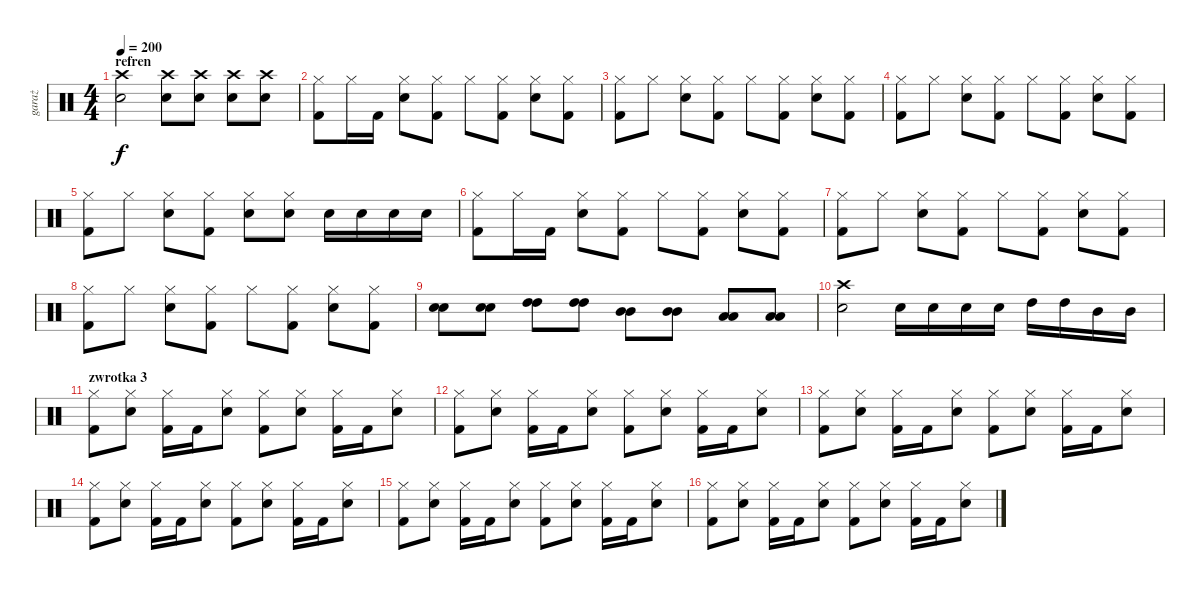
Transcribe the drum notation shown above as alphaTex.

\track ("garaż" "garaż") {instrument percussion}
\staff {score}
\articulation defaults
\ts (4 4)
\section ("" "refren")
\tempo 200
\clef neutral
\ks c
("Crash high (hit)" "Snare (hit) 2").2{dy f} ("Crash high (hit)" "Snare (hit) 2").8 ("Crash high (hit)" "Snare (hit) 2").8 ("Crash high (hit)" "Snare (hit) 2").8 ("Crash high (hit)" "Snare (hit) 2").8 |
("Hi-Hat (closed)" "Kick (hit) 2").8 "Hi-Hat (closed)".16 "Kick (hit) 2".16 ("Hi-Hat (closed)" "Snare (hit) 2").8 ("Hi-Hat (closed)" "Kick (hit) 2").8 "Hi-Hat (closed)".8 ("Hi-Hat (closed)" "Kick (hit) 2").8 ("Hi-Hat (closed)" "Snare (hit) 2").8 ("Hi-Hat (closed)" "Kick (hit) 2").8 |
("Hi-Hat (closed)" "Kick (hit) 2").8 "Hi-Hat (closed)".8 ("Hi-Hat (closed)" "Snare (hit) 2").8 ("Hi-Hat (closed)" "Kick (hit) 2").8 "Hi-Hat (closed)".8 ("Hi-Hat (closed)" "Kick (hit) 2").8 ("Hi-Hat (closed)" "Snare (hit) 2").8 ("Hi-Hat (closed)" "Kick (hit) 2").8 |
("Hi-Hat (closed)" "Kick (hit) 2").8 "Hi-Hat (closed)".8 ("Hi-Hat (closed)" "Snare (hit) 2").8 ("Hi-Hat (closed)" "Kick (hit) 2").8 "Hi-Hat (closed)".8 ("Hi-Hat (closed)" "Kick (hit) 2").8 ("Hi-Hat (closed)" "Snare (hit) 2").8 ("Hi-Hat (closed)" "Kick (hit) 2").8 |
("Hi-Hat (closed)" "Kick (hit) 2").8 "Hi-Hat (closed)".8 ("Hi-Hat (closed)" "Snare (hit) 2").8 ("Hi-Hat (closed)" "Kick (hit) 2").8 ("Hi-Hat (closed)" "Snare (hit) 2").8 ("Hi-Hat (closed)" "Snare (hit) 2").8 "Snare (hit) 2".16 "Snare (hit) 2".16 "Snare (hit) 2".16 "Snare (hit) 2".16 |
("Hi-Hat (closed)" "Kick (hit) 2").8 "Hi-Hat (closed)".16 "Kick (hit) 2".16 ("Hi-Hat (closed)" "Snare (hit) 2").8 ("Hi-Hat (closed)" "Kick (hit) 2").8 "Hi-Hat (closed)".8 ("Hi-Hat (closed)" "Kick (hit) 2").8 ("Hi-Hat (closed)" "Snare (hit) 2").8 ("Hi-Hat (closed)" "Kick (hit) 2").8 |
("Hi-Hat (closed)" "Kick (hit) 2").8 "Hi-Hat (closed)".8 ("Hi-Hat (closed)" "Snare (hit) 2").8 ("Hi-Hat (closed)" "Kick (hit) 2").8 "Hi-Hat (closed)".8 ("Hi-Hat (closed)" "Kick (hit) 2").8 ("Hi-Hat (closed)" "Snare (hit) 2").8 ("Hi-Hat (closed)" "Kick (hit) 2").8 |
("Hi-Hat (closed)" "Kick (hit) 2").8 "Hi-Hat (closed)".8 ("Hi-Hat (closed)" "Snare (hit) 2").8 ("Hi-Hat (closed)" "Kick (hit) 2").8 "Hi-Hat (closed)".8 ("Hi-Hat (closed)" "Kick (hit) 2").8 ("Hi-Hat (closed)" "Snare (hit) 2").8 ("Hi-Hat (closed)" "Kick (hit) 2").8 |
("Snare (hit) 2" "Snare (hit) 2").8 ("Snare (hit) 2" "Snare (hit) 2").8 ("High Tom (hit)" "High Tom (hit)").8 ("High Tom (hit)" "High Tom (hit)").8 ("Mid Tom (hit)" "Mid Tom (hit)").8 ("Mid Tom (hit)" "Mid Tom (hit)").8 ("Low Tom (hit)" "Low Tom (hit)").8 ("Low Tom (hit)" "Low Tom (hit)").8 |
("Crash high (hit)" "Snare (hit) 2").2 "Snare (hit) 2".16 "Snare (hit) 2".16 "Snare (hit) 2".16 "Snare (hit) 2".16 "High Tom (hit)".16 "High Tom (hit)".16 "Mid Tom (hit)".16 "Mid Tom (hit)".16 |
\section ("" "zwrotka 3")
("Hi-Hat (closed)" "Kick (hit) 2").8 ("Hi-Hat (closed)" "Snare (hit) 2").8 ("Hi-Hat (closed)" "Kick (hit) 2").16 "Kick (hit) 2".16 ("Hi-Hat (closed)" "Snare (hit) 2").8 ("Hi-Hat (closed)" "Kick (hit) 2").8 ("Hi-Hat (closed)" "Snare (hit) 2").8 ("Hi-Hat (closed)" "Kick (hit) 2").16 "Kick (hit) 2".16 ("Hi-Hat (closed)" "Snare (hit) 2").8 |
("Hi-Hat (closed)" "Kick (hit) 2").8 ("Hi-Hat (closed)" "Snare (hit) 2").8 ("Hi-Hat (closed)" "Kick (hit) 2").16 "Kick (hit) 2".16 ("Hi-Hat (closed)" "Snare (hit) 2").8 ("Hi-Hat (closed)" "Kick (hit) 2").8 ("Hi-Hat (closed)" "Snare (hit) 2").8 ("Hi-Hat (closed)" "Kick (hit) 2").16 "Kick (hit) 2".16 ("Hi-Hat (closed)" "Snare (hit) 2").8 |
("Hi-Hat (closed)" "Kick (hit) 2").8 ("Hi-Hat (closed)" "Snare (hit) 2").8 ("Hi-Hat (closed)" "Kick (hit) 2").16 "Kick (hit) 2".16 ("Hi-Hat (closed)" "Snare (hit) 2").8 ("Hi-Hat (closed)" "Kick (hit) 2").8 ("Hi-Hat (closed)" "Snare (hit) 2").8 ("Hi-Hat (closed)" "Kick (hit) 2").16 "Kick (hit) 2".16 ("Hi-Hat (closed)" "Snare (hit) 2").8 |
("Hi-Hat (closed)" "Kick (hit) 2").8 ("Hi-Hat (closed)" "Snare (hit) 2").8 ("Hi-Hat (closed)" "Kick (hit) 2").16 "Kick (hit) 2".16 ("Hi-Hat (closed)" "Snare (hit) 2").8 ("Hi-Hat (closed)" "Kick (hit) 2").8 ("Hi-Hat (closed)" "Snare (hit) 2").8 ("Hi-Hat (closed)" "Kick (hit) 2").16 "Kick (hit) 2".16 ("Hi-Hat (closed)" "Snare (hit) 2").8 |
("Hi-Hat (closed)" "Kick (hit) 2").8 ("Hi-Hat (closed)" "Snare (hit) 2").8 ("Hi-Hat (closed)" "Kick (hit) 2").16 "Kick (hit) 2".16 ("Hi-Hat (closed)" "Snare (hit) 2").8 ("Hi-Hat (closed)" "Kick (hit) 2").8 ("Hi-Hat (closed)" "Snare (hit) 2").8 ("Hi-Hat (closed)" "Kick (hit) 2").16 "Kick (hit) 2".16 ("Hi-Hat (closed)" "Snare (hit) 2").8 |
("Hi-Hat (closed)" "Kick (hit) 2").8 ("Hi-Hat (closed)" "Snare (hit) 2").8 ("Hi-Hat (closed)" "Kick (hit) 2").16 "Kick (hit) 2".16 ("Hi-Hat (closed)" "Snare (hit) 2").8 ("Hi-Hat (closed)" "Kick (hit) 2").8 ("Hi-Hat (closed)" "Snare (hit) 2").8 ("Hi-Hat (closed)" "Kick (hit) 2").16 "Kick (hit) 2".16 ("Hi-Hat (closed)" "Snare (hit) 2").8
